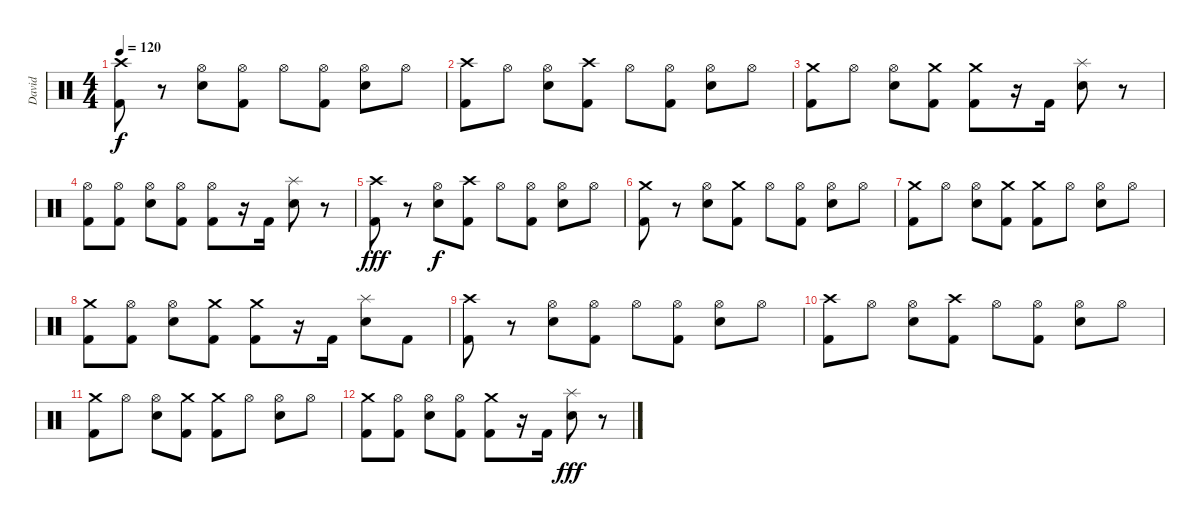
\track ("David" "David") {instrument percussion}
\staff {score}
\articulation defaults
\ts (4 4)
\tempo 120
\clef neutral
\ks c
("Crash high (hit)" "Kick (hit) 2").8{dy f} r.8 ("Hi-Hat (open)" "Electric Snare (hit)").8 ("Hi-Hat (open)" "Kick (hit) 2").8 "Hi-Hat (open)".8 ("Hi-Hat (open)" "Kick (hit) 2").8 ("Hi-Hat (open)" "Electric Snare (hit)").8 "Hi-Hat (open)".8 |
("Crash high (hit)" "Kick (hit) 2").8 "Hi-Hat (open)".8 ("Hi-Hat (open)" "Electric Snare (hit)").8 ("Crash high (hit)" "Kick (hit) 2").8 "Hi-Hat (open)".8 ("Hi-Hat (open)" "Kick (hit) 2").8 ("Hi-Hat (open)" "Electric Snare (hit)").8 "Hi-Hat (open)".8 |
("Crash medium (hit)" "Kick (hit) 2").8 "Hi-Hat (open)".8 ("Hi-Hat (open)" "Electric Snare (hit)").8 ("Crash medium (hit)" "Kick (hit) 2").8 ("Crash medium (hit)" "Kick (hit) 2").8 r.16 "Kick (hit) 2".16 ("Splash (hit)" "Electric Snare (hit)").8 r.8 |
("Hi-Hat (open)" "Kick (hit) 2").8 ("Hi-Hat (open)" "Kick (hit) 2").8 ("Hi-Hat (open)" "Electric Snare (hit)").8 ("Hi-Hat (open)" "Kick (hit) 2").8 ("Hi-Hat (open)" "Kick (hit) 2").8 r.16 "Kick (hit) 2".16 ("Splash (hit)" "Electric Snare (hit)").8 r.8 |
("Crash high (hit)" "Kick (hit) 2").8{dy fff} r.8 ("Hi-Hat (open)" "Electric Snare (hit)").8{dy f} ("Crash high (hit)" "Kick (hit) 2").8 "Hi-Hat (open)".8 ("Hi-Hat (open)" "Kick (hit) 2").8 ("Hi-Hat (open)" "Electric Snare (hit)").8 "Hi-Hat (open)".8 |
("Crash medium (hit)" "Kick (hit) 2").8 r.8 ("Hi-Hat (open)" "Electric Snare (hit)").8 ("Crash medium (hit)" "Kick (hit) 2").8 "Hi-Hat (open)".8 ("Hi-Hat (open)" "Kick (hit) 2").8 ("Hi-Hat (open)" "Electric Snare (hit)").8 "Hi-Hat (open)".8 |
("Crash medium (hit)" "Kick (hit) 2").8 "Hi-Hat (open)".8 ("Hi-Hat (open)" "Electric Snare (hit)").8 ("Crash medium (hit)" "Kick (hit) 2").8 ("Crash medium (hit)" "Kick (hit) 2").8 "Hi-Hat (open)".8 ("Hi-Hat (open)" "Electric Snare (hit)").8 "Hi-Hat (open)".8 |
("Crash medium (hit)" "Kick (hit) 2").8 ("Hi-Hat (open)" "Kick (hit) 2").8 ("Hi-Hat (open)" "Electric Snare (hit)").8 ("Crash medium (hit)" "Kick (hit) 2").8 ("Crash medium (hit)" "Kick (hit) 2").8 r.16 "Kick (hit) 2".16 ("Splash (hit)" "Electric Snare (hit)").8 "Kick (hit) 2".8 |
("Crash high (hit)" "Kick (hit) 2").8 r.8 ("Hi-Hat (open)" "Electric Snare (hit)").8 ("Hi-Hat (open)" "Kick (hit) 2").8 "Hi-Hat (open)".8 ("Hi-Hat (open)" "Kick (hit) 2").8 ("Hi-Hat (open)" "Electric Snare (hit)").8 "Hi-Hat (open)".8 |
("Crash high (hit)" "Kick (hit) 2").8 "Hi-Hat (open)".8 ("Hi-Hat (open)" "Electric Snare (hit)").8 ("Crash high (hit)" "Kick (hit) 2").8 "Hi-Hat (open)".8 ("Hi-Hat (open)" "Kick (hit) 2").8 ("Hi-Hat (open)" "Electric Snare (hit)").8 "Hi-Hat (open)".8 |
("Crash medium (hit)" "Kick (hit) 2").8 "Hi-Hat (open)".8 ("Hi-Hat (open)" "Electric Snare (hit)").8 ("Crash medium (hit)" "Kick (hit) 2").8 ("Crash medium (hit)" "Kick (hit) 2").8 "Hi-Hat (open)".8 ("Hi-Hat (open)" "Electric Snare (hit)").8 "Hi-Hat (open)".8 |
("Crash medium (hit)" "Kick (hit) 2").8 ("Hi-Hat (open)" "Kick (hit) 2").8 ("Hi-Hat (open)" "Electric Snare (hit)").8 ("Hi-Hat (open)" "Kick (hit) 2").8 ("Crash medium (hit)" "Kick (hit) 2").8 r.16 "Kick (hit) 2".16 ("Splash (hit)" "Electric Snare (hit)").8{dy fff} r.8
